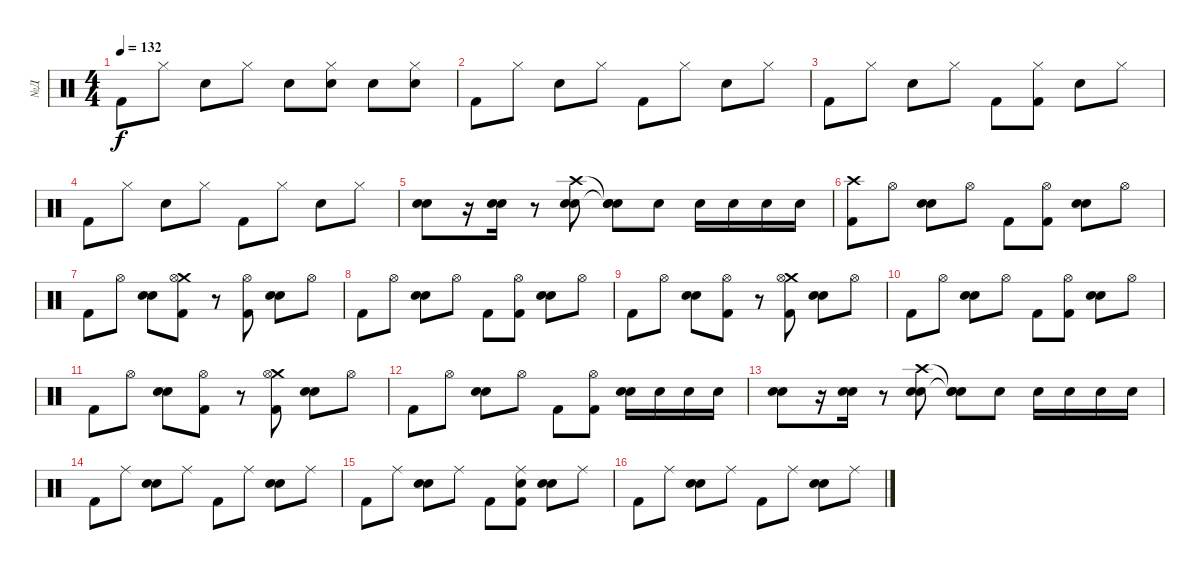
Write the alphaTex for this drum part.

\track ("№Д" "№Д") {instrument percussion}
\staff {score}
\articulation defaults
\ts (4 4)
\tempo 132
\clef neutral
\ks c "Kick (hit) 2".8{dy f} "Hi-Hat (closed)".8 "Snare (hit) 2".8 "Hi-Hat (closed)".8 "Electric Snare (hit)".8
("Hi-Hat (closed)" "Electric Snare (hit)").8 "Snare (hit) 2".8 ("Hi-Hat (closed)" "Snare (hit) 2").8 |
"Kick (hit) 2".8 "Hi-Hat (closed)".8 "Snare (hit) 2".8 "Hi-Hat (closed)".8 "Kick (hit) 2".8 "Hi-Hat (closed)".8 "Snare (hit) 2".8 "Hi-Hat (closed)".8 |
"Kick (hit) 2".8 "Hi-Hat (closed)".8 "Snare (hit) 2".8 "Hi-Hat (closed)".8 "Kick (hit) 2".8 ("Hi-Hat (closed)" "Kick (hit) 2").8 "Snare (hit) 2".8 "Hi-Hat (closed)".8 |
"Kick (hit) 2".8 "Hi-Hat (closed)".8 "Snare (hit) 2".8 "Hi-Hat (closed)".8 "Kick (hit) 2".8 "Hi-Hat (closed)".8 "Snare (hit) 2".8 "Hi-Hat (closed)".8 |
("Snare (hit) 2" "Electric Snare (hit)").8 r.16 ("Snare (hit) 2" "Electric Snare (hit)").16 r.8 ("Crash high (hit)" "Snare (hit) 2" "Electric Snare (hit)").8 ("Snare (hit)"{t} "Snare (hit)"{t} "Snare (hit) 2").8 "Snare (hit) 2".8 "Snare (hit) 2".16 "Snare (hit) 2".16 "Snare (hit) 2".16 "Snare (hit) 2".16 |
("Crash high (hit)" "Kick (hit) 2").8 "Hi-Hat (open)".8 ("Hand Clap (hit)" "Snare (hit) 2").8 "Hi-Hat (open)".8 "Kick (hit) 2".8 ("Hi-Hat (open)" "Kick (hit) 2").8 ("Hand Clap (hit)" "Snare (hit) 2").8 "Hi-Hat (open)".8 |
"Kick (hit) 2".8 "Hi-Hat (open)".8 ("Hand Clap (hit)" "Snare (hit) 2").8 ("Crash medium (hit)" "Hi-Hat (open)" "Kick (hit) 2").8 r.8 ("Hi-Hat (open)" "Kick (hit) 2").8 ("Hand Clap (hit)" "Snare (hit) 2").8 "Hi-Hat (open)".8 |
"Kick (hit) 2".8 "Hi-Hat (open)".8 ("Hand Clap (hit)" "Snare (hit) 2").8 "Hi-Hat (open)".8 "Kick (hit) 2".8 ("Hi-Hat (open)" "Kick (hit) 2").8 ("Hand Clap (hit)" "Snare (hit) 2").8 "Hi-Hat (open)".8 |
"Kick (hit) 2".8 "Hi-Hat (open)".8 ("Hand Clap (hit)" "Snare (hit) 2").8 ("Hi-Hat (open)" "Kick (hit) 2").8 r.8 ("Crash medium (hit)" "Hi-Hat (open)" "Kick (hit) 2").8 ("Hand Clap (hit)" "Snare (hit) 2").8 "Hi-Hat (open)".8 |
"Kick (hit) 2".8 "Hi-Hat (open)".8 ("Hand Clap (hit)" "Snare (hit) 2").8 "Hi-Hat (open)".8 "Kick (hit) 2".8 ("Hi-Hat (open)" "Kick (hit) 2").8 ("Hand Clap (hit)" "Snare (hit) 2").8 "Hi-Hat (open)".8 |
"Kick (hit) 2".8 "Hi-Hat (open)".8 ("Hand Clap (hit)" "Snare (hit) 2").8 ("Hi-Hat (open)" "Kick (hit) 2").8 r.8 ("Crash medium (hit)" "Hi-Hat (open)" "Kick (hit) 2").8 ("Hand Clap (hit)" "Snare (hit) 2").8 "Hi-Hat (open)".8 |
"Kick (hit) 2".8 "Hi-Hat (open)".8 ("Hand Clap (hit)" "Snare (hit) 2").8 "Hi-Hat (open)".8 "Kick (hit) 2".8 ("Hi-Hat (open)" "Kick (hit) 2").8 ("Hand Clap (hit)" "Snare (hit) 2").16 "Snare (hit) 2".16 "Snare (hit) 2".16 "Snare (hit) 2".16 |
("Snare (hit) 2" "Electric Snare (hit)").8 r.16 ("Snare (hit) 2" "Electric Snare (hit)").16 r.8 ("Crash high (hit)" "Snare (hit) 2" "Electric Snare (hit)").8 ("Snare (hit)"{t} "Snare (hit)"{t} "Snare (hit) 2").8 "Snare (hit) 2".8 "Snare (hit) 2".16 "Snare (hit) 2".16 "Snare (hit) 2".16 "Snare (hit) 2".16 |
"Kick (hit) 2".8 "Ride (middle)".8 ("Hand Clap (hit)" "Snare (hit) 2").8 "Ride (middle)".8 "Kick (hit) 2".8 "Ride (middle)".8 ("Hand Clap (hit)" "Snare (hit) 2").8 "Ride (middle)".8 |
"Kick (hit) 2".8 "Ride (middle)".8 ("Hand Clap (hit)" "Snare (hit) 2").8 "Ride (middle)".8 "Kick (hit) 2".8 ("Hand Clap (hit)" "Ride (middle)" "Kick (hit) 2").8 ("Hand Clap (hit)" "Snare (hit) 2").8 "Ride (middle)".8 |
"Kick (hit) 2".8 "Ride (middle)".8 ("Hand Clap (hit)" "Snare (hit) 2").8 "Ride (middle)".8 "Kick (hit) 2".8 "Ride (middle)".8 ("Hand Clap (hit)" "Snare (hit) 2").8 "Ride (middle)".8
